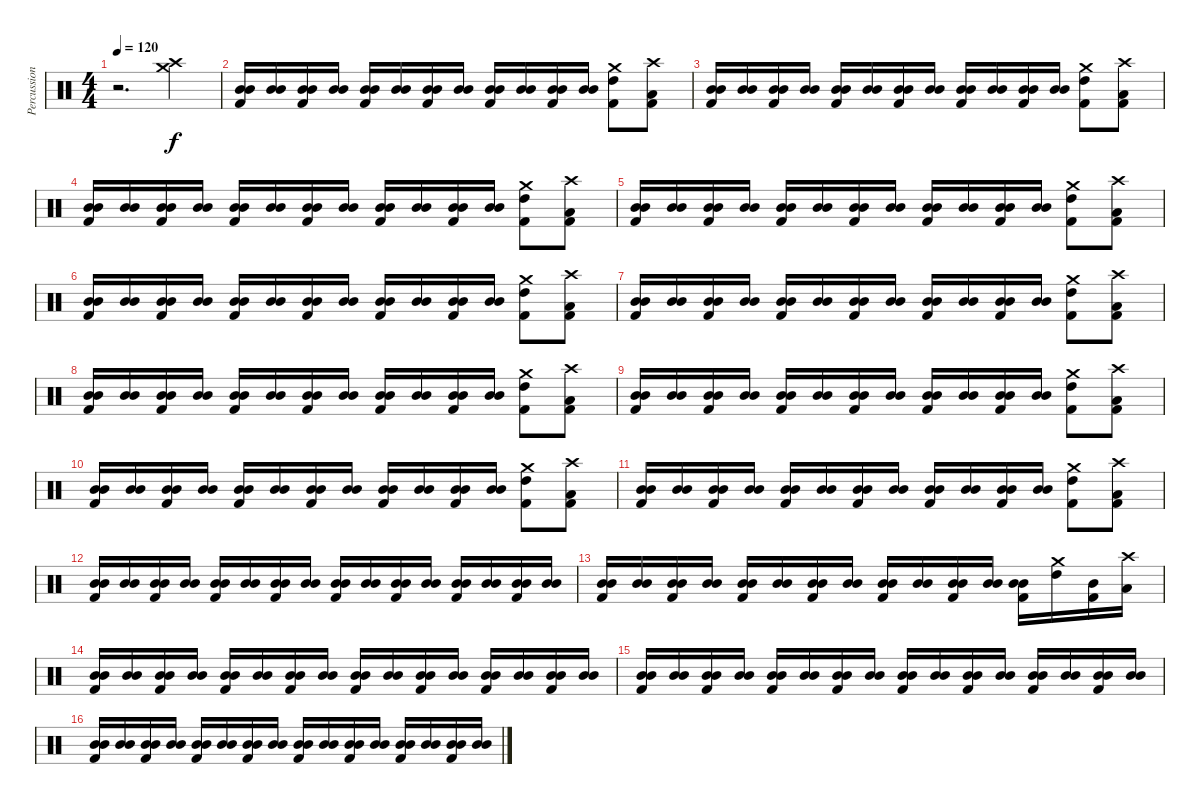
\track ("Percussion" "Percussion") {instrument percussion}
\staff {score}
\articulation defaults
\ts (4 4)
\tempo 120
\clef neutral
\ks c
r.2{d dy f} ("Crash high (hit)" "Crash medium (hit)").4 |
("Mid Tom (hit)" "Mid Tom (hit)" "Kick (hit) 2").16 ("Mid Tom (hit)" "Mid Tom (hit)").16 ("Mid Tom (hit)" "Mid Tom (hit)" "Kick (hit) 2").16 ("Mid Tom (hit)" "Mid Tom (hit)").16 ("Mid Tom (hit)" "Mid Tom (hit)" "Kick (hit) 2").16 ("Mid Tom (hit)" "Mid Tom (hit)").16 ("Mid Tom (hit)" "Mid Tom (hit)" "Kick (hit) 2").16 ("Mid Tom (hit)" "Mid Tom (hit)").16 ("Mid Tom (hit)" "Mid Tom (hit)" "Kick (hit) 2").16 ("Mid Tom (hit)" "Mid Tom (hit)").16 ("Mid Tom (hit)" "Mid Tom (hit)" "Kick (hit) 2").16 ("Mid Tom (hit)" "Mid Tom (hit)").16 ("Crash medium (hit)" "High Tom (hit)" "Kick (hit) 2").8 ("Crash high (hit)" "Low Tom (hit)" "Kick (hit) 2").8 |
("Mid Tom (hit)" "Mid Tom (hit)" "Kick (hit) 2").16 ("Mid Tom (hit)" "Mid Tom (hit)").16 ("Mid Tom (hit)" "Mid Tom (hit)" "Kick (hit) 2").16 ("Mid Tom (hit)" "Mid Tom (hit)").16 ("Mid Tom (hit)" "Mid Tom (hit)" "Kick (hit) 2").16 ("Mid Tom (hit)" "Mid Tom (hit)").16 ("Mid Tom (hit)" "Mid Tom (hit)" "Kick (hit) 2").16 ("Mid Tom (hit)" "Mid Tom (hit)").16 ("Mid Tom (hit)" "Mid Tom (hit)" "Kick (hit) 2").16 ("Mid Tom (hit)" "Mid Tom (hit)").16 ("Mid Tom (hit)" "Mid Tom (hit)" "Kick (hit) 2").16 ("Mid Tom (hit)" "Mid Tom (hit)").16 ("Crash medium (hit)" "High Tom (hit)" "Kick (hit) 2").8 ("Crash high (hit)" "Low Tom (hit)" "Kick (hit) 2").8 |
("Mid Tom (hit)" "Mid Tom (hit)" "Kick (hit) 2").16 ("Mid Tom (hit)" "Mid Tom (hit)").16 ("Mid Tom (hit)" "Mid Tom (hit)" "Kick (hit) 2").16 ("Mid Tom (hit)" "Mid Tom (hit)").16 ("Mid Tom (hit)" "Mid Tom (hit)" "Kick (hit) 2").16 ("Mid Tom (hit)" "Mid Tom (hit)").16 ("Mid Tom (hit)" "Mid Tom (hit)" "Kick (hit) 2").16 ("Mid Tom (hit)" "Mid Tom (hit)").16 ("Mid Tom (hit)" "Mid Tom (hit)" "Kick (hit) 2").16 ("Mid Tom (hit)" "Mid Tom (hit)").16 ("Mid Tom (hit)" "Mid Tom (hit)" "Kick (hit) 2").16 ("Mid Tom (hit)" "Mid Tom (hit)").16 ("Crash medium (hit)" "High Tom (hit)" "Kick (hit) 2").8 ("Crash high (hit)" "Low Tom (hit)" "Kick (hit) 2").8 |
("Mid Tom (hit)" "Mid Tom (hit)" "Kick (hit) 2").16 ("Mid Tom (hit)" "Mid Tom (hit)").16 ("Mid Tom (hit)" "Mid Tom (hit)" "Kick (hit) 2").16 ("Mid Tom (hit)" "Mid Tom (hit)").16 ("Mid Tom (hit)" "Mid Tom (hit)" "Kick (hit) 2").16 ("Mid Tom (hit)" "Mid Tom (hit)").16 ("Mid Tom (hit)" "Mid Tom (hit)" "Kick (hit) 2").16 ("Mid Tom (hit)" "Mid Tom (hit)").16 ("Mid Tom (hit)" "Mid Tom (hit)" "Kick (hit) 2").16 ("Mid Tom (hit)" "Mid Tom (hit)").16 ("Mid Tom (hit)" "Mid Tom (hit)" "Kick (hit) 2").16 ("Mid Tom (hit)" "Mid Tom (hit)").16 ("Crash medium (hit)" "High Tom (hit)" "Kick (hit) 2").8 ("Crash high (hit)" "Low Tom (hit)" "Kick (hit) 2").8 |
("Mid Tom (hit)" "Mid Tom (hit)" "Kick (hit) 2").16 ("Mid Tom (hit)" "Mid Tom (hit)").16 ("Mid Tom (hit)" "Mid Tom (hit)" "Kick (hit) 2").16 ("Mid Tom (hit)" "Mid Tom (hit)").16 ("Mid Tom (hit)" "Mid Tom (hit)" "Kick (hit) 2").16 ("Mid Tom (hit)" "Mid Tom (hit)").16 ("Mid Tom (hit)" "Mid Tom (hit)" "Kick (hit) 2").16 ("Mid Tom (hit)" "Mid Tom (hit)").16 ("Mid Tom (hit)" "Mid Tom (hit)" "Kick (hit) 2").16 ("Mid Tom (hit)" "Mid Tom (hit)").16 ("Mid Tom (hit)" "Mid Tom (hit)" "Kick (hit) 2").16 ("Mid Tom (hit)" "Mid Tom (hit)").16 ("Crash medium (hit)" "High Tom (hit)" "Kick (hit) 2").8 ("Crash high (hit)" "Low Tom (hit)" "Kick (hit) 2").8 |
("Mid Tom (hit)" "Mid Tom (hit)" "Kick (hit) 2").16 ("Mid Tom (hit)" "Mid Tom (hit)").16 ("Mid Tom (hit)" "Mid Tom (hit)" "Kick (hit) 2").16 ("Mid Tom (hit)" "Mid Tom (hit)").16 ("Mid Tom (hit)" "Mid Tom (hit)" "Kick (hit) 2").16 ("Mid Tom (hit)" "Mid Tom (hit)").16 ("Mid Tom (hit)" "Mid Tom (hit)" "Kick (hit) 2").16 ("Mid Tom (hit)" "Mid Tom (hit)").16 ("Mid Tom (hit)" "Mid Tom (hit)" "Kick (hit) 2").16 ("Mid Tom (hit)" "Mid Tom (hit)").16 ("Mid Tom (hit)" "Mid Tom (hit)" "Kick (hit) 2").16 ("Mid Tom (hit)" "Mid Tom (hit)").16 ("Crash medium (hit)" "High Tom (hit)" "Kick (hit) 2").8 ("Crash high (hit)" "Low Tom (hit)" "Kick (hit) 2").8 |
("Mid Tom (hit)" "Mid Tom (hit)" "Kick (hit) 2").16 ("Mid Tom (hit)" "Mid Tom (hit)").16 ("Mid Tom (hit)" "Mid Tom (hit)" "Kick (hit) 2").16 ("Mid Tom (hit)" "Mid Tom (hit)").16 ("Mid Tom (hit)" "Mid Tom (hit)" "Kick (hit) 2").16 ("Mid Tom (hit)" "Mid Tom (hit)").16 ("Mid Tom (hit)" "Mid Tom (hit)" "Kick (hit) 2").16 ("Mid Tom (hit)" "Mid Tom (hit)").16 ("Mid Tom (hit)" "Mid Tom (hit)" "Kick (hit) 2").16 ("Mid Tom (hit)" "Mid Tom (hit)").16 ("Mid Tom (hit)" "Mid Tom (hit)" "Kick (hit) 2").16 ("Mid Tom (hit)" "Mid Tom (hit)").16 ("Crash medium (hit)" "High Tom (hit)" "Kick (hit) 2").8 ("Crash high (hit)" "Low Tom (hit)" "Kick (hit) 2").8 |
("Mid Tom (hit)" "Mid Tom (hit)" "Kick (hit) 2").16 ("Mid Tom (hit)" "Mid Tom (hit)").16 ("Mid Tom (hit)" "Mid Tom (hit)" "Kick (hit) 2").16 ("Mid Tom (hit)" "Mid Tom (hit)").16 ("Mid Tom (hit)" "Mid Tom (hit)" "Kick (hit) 2").16 ("Mid Tom (hit)" "Mid Tom (hit)").16 ("Mid Tom (hit)" "Mid Tom (hit)" "Kick (hit) 2").16 ("Mid Tom (hit)" "Mid Tom (hit)").16 ("Mid Tom (hit)" "Mid Tom (hit)" "Kick (hit) 2").16 ("Mid Tom (hit)" "Mid Tom (hit)").16 ("Mid Tom (hit)" "Mid Tom (hit)" "Kick (hit) 2").16 ("Mid Tom (hit)" "Mid Tom (hit)").16 ("Crash medium (hit)" "High Tom (hit)" "Kick (hit) 2").8 ("Crash high (hit)" "Low Tom (hit)" "Kick (hit) 2").8 |
("Mid Tom (hit)" "Mid Tom (hit)" "Kick (hit) 2").16 ("Mid Tom (hit)" "Mid Tom (hit)").16 ("Mid Tom (hit)" "Mid Tom (hit)" "Kick (hit) 2").16 ("Mid Tom (hit)" "Mid Tom (hit)").16 ("Mid Tom (hit)" "Mid Tom (hit)" "Kick (hit) 2").16 ("Mid Tom (hit)" "Mid Tom (hit)").16 ("Mid Tom (hit)" "Mid Tom (hit)" "Kick (hit) 2").16 ("Mid Tom (hit)" "Mid Tom (hit)").16 ("Mid Tom (hit)" "Mid Tom (hit)" "Kick (hit) 2").16 ("Mid Tom (hit)" "Mid Tom (hit)").16 ("Mid Tom (hit)" "Mid Tom (hit)" "Kick (hit) 2").16 ("Mid Tom (hit)" "Mid Tom (hit)").16 ("Crash medium (hit)" "High Tom (hit)" "Kick (hit) 2").8 ("Crash high (hit)" "Low Tom (hit)" "Kick (hit) 2").8 |
("Mid Tom (hit)" "Mid Tom (hit)" "Kick (hit) 2").16 ("Mid Tom (hit)" "Mid Tom (hit)").16 ("Mid Tom (hit)" "Mid Tom (hit)" "Kick (hit) 2").16 ("Mid Tom (hit)" "Mid Tom (hit)").16 ("Mid Tom (hit)" "Mid Tom (hit)" "Kick (hit) 2").16 ("Mid Tom (hit)" "Mid Tom (hit)").16 ("Mid Tom (hit)" "Mid Tom (hit)" "Kick (hit) 2").16 ("Mid Tom (hit)" "Mid Tom (hit)").16 ("Mid Tom (hit)" "Mid Tom (hit)" "Kick (hit) 2").16 ("Mid Tom (hit)" "Mid Tom (hit)").16 ("Mid Tom (hit)" "Mid Tom (hit)" "Kick (hit) 2").16 ("Mid Tom (hit)" "Mid Tom (hit)").16 ("Crash medium (hit)" "High Tom (hit)" "Kick (hit) 2").8 ("Crash high (hit)" "Low Tom (hit)" "Kick (hit) 2").8 |
("Mid Tom (hit)" "Mid Tom (hit)" "Kick (hit) 2").16 ("Mid Tom (hit)" "Mid Tom (hit)").16 ("Mid Tom (hit)" "Mid Tom (hit)" "Kick (hit) 2").16 ("Mid Tom (hit)" "Mid Tom (hit)").16 ("Mid Tom (hit)" "Mid Tom (hit)" "Kick (hit) 2").16 ("Mid Tom (hit)" "Mid Tom (hit)").16 ("Mid Tom (hit)" "Mid Tom (hit)" "Kick (hit) 2").16 ("Mid Tom (hit)" "Mid Tom (hit)").16 ("Mid Tom (hit)" "Mid Tom (hit)" "Kick (hit) 2").16 ("Mid Tom (hit)" "Mid Tom (hit)").16 ("Mid Tom (hit)" "Mid Tom (hit)" "Kick (hit) 2").16 ("Mid Tom (hit)" "Mid Tom (hit)").16 ("Mid Tom (hit)" "Mid Tom (hit)" "Kick (hit) 2").16 ("Mid Tom (hit)" "Mid Tom (hit)").16 ("Mid Tom (hit)" "Mid Tom (hit)" "Kick (hit) 2").16 ("Mid Tom (hit)" "Mid Tom (hit)").16 |
("Mid Tom (hit)" "Mid Tom (hit)" "Kick (hit) 2").16 ("Mid Tom (hit)" "Mid Tom (hit)").16 ("Mid Tom (hit)" "Mid Tom (hit)" "Kick (hit) 2").16 ("Mid Tom (hit)" "Mid Tom (hit)").16 ("Mid Tom (hit)" "Mid Tom (hit)" "Kick (hit) 2").16 ("Mid Tom (hit)" "Mid Tom (hit)").16 ("Mid Tom (hit)" "Mid Tom (hit)" "Kick (hit) 2").16 ("Mid Tom (hit)" "Mid Tom (hit)").16 ("Mid Tom (hit)" "Mid Tom (hit)" "Kick (hit) 2").16 ("Mid Tom (hit)" "Mid Tom (hit)").16 ("Mid Tom (hit)" "Mid Tom (hit)" "Kick (hit) 2").16 ("Mid Tom (hit)" "Mid Tom (hit)").16 ("Mid Tom (hit)" "Mid Tom (hit)" "Kick (hit) 2").16 ("Crash medium (hit)" "High Tom (hit)").16 ("Mid Tom (hit)" "Kick (hit) 2").16 ("Crash high (hit)" "Low Tom (hit)").16 |
("Mid Tom (hit)" "Mid Tom (hit)" "Kick (hit) 2").16 ("Mid Tom (hit)" "Mid Tom (hit)").16 ("Mid Tom (hit)" "Mid Tom (hit)" "Kick (hit) 2").16 ("Mid Tom (hit)" "Mid Tom (hit)").16 ("Mid Tom (hit)" "Mid Tom (hit)" "Kick (hit) 2").16 ("Mid Tom (hit)" "Mid Tom (hit)").16 ("Mid Tom (hit)" "Mid Tom (hit)" "Kick (hit) 2").16 ("Mid Tom (hit)" "Mid Tom (hit)").16 ("Mid Tom (hit)" "Mid Tom (hit)" "Kick (hit) 2").16 ("Mid Tom (hit)" "Mid Tom (hit)").16 ("Mid Tom (hit)" "Mid Tom (hit)" "Kick (hit) 2").16 ("Mid Tom (hit)" "Mid Tom (hit)").16 ("Mid Tom (hit)" "Mid Tom (hit)" "Kick (hit) 2").16 ("Mid Tom (hit)" "Mid Tom (hit)").16 ("Mid Tom (hit)" "Mid Tom (hit)" "Kick (hit) 2").16 ("Mid Tom (hit)" "Mid Tom (hit)").16 |
("Mid Tom (hit)" "Mid Tom (hit)" "Kick (hit) 2").16 ("Mid Tom (hit)" "Mid Tom (hit)").16 ("Mid Tom (hit)" "Mid Tom (hit)" "Kick (hit) 2").16 ("Mid Tom (hit)" "Mid Tom (hit)").16 ("Mid Tom (hit)" "Mid Tom (hit)" "Kick (hit) 2").16 ("Mid Tom (hit)" "Mid Tom (hit)").16 ("Mid Tom (hit)" "Mid Tom (hit)" "Kick (hit) 2").16 ("Mid Tom (hit)" "Mid Tom (hit)").16 ("Mid Tom (hit)" "Mid Tom (hit)" "Kick (hit) 2").16 ("Mid Tom (hit)" "Mid Tom (hit)").16 ("Mid Tom (hit)" "Mid Tom (hit)" "Kick (hit) 2").16 ("Mid Tom (hit)" "Mid Tom (hit)").16 ("Mid Tom (hit)" "Mid Tom (hit)" "Kick (hit) 2").16 ("Mid Tom (hit)" "Mid Tom (hit)").16 ("Mid Tom (hit)" "Mid Tom (hit)" "Kick (hit) 2").16 ("Mid Tom (hit)" "Mid Tom (hit)").16 |
("Mid Tom (hit)" "Mid Tom (hit)" "Kick (hit) 2").16 ("Mid Tom (hit)" "Mid Tom (hit)").16 ("Mid Tom (hit)" "Mid Tom (hit)" "Kick (hit) 2").16 ("Mid Tom (hit)" "Mid Tom (hit)").16 ("Mid Tom (hit)" "Mid Tom (hit)" "Kick (hit) 2").16 ("Mid Tom (hit)" "Mid Tom (hit)").16 ("Mid Tom (hit)" "Mid Tom (hit)" "Kick (hit) 2").16 ("Mid Tom (hit)" "Mid Tom (hit)").16 ("Mid Tom (hit)" "Mid Tom (hit)" "Kick (hit) 2").16 ("Mid Tom (hit)" "Mid Tom (hit)").16 ("Mid Tom (hit)" "Mid Tom (hit)" "Kick (hit) 2").16 ("Mid Tom (hit)" "Mid Tom (hit)").16 ("Mid Tom (hit)" "Mid Tom (hit)" "Kick (hit) 2").16 ("Mid Tom (hit)" "Mid Tom (hit)").16 ("Mid Tom (hit)" "Mid Tom (hit)" "Kick (hit) 2").16 ("Mid Tom (hit)" "Mid Tom (hit)").16
